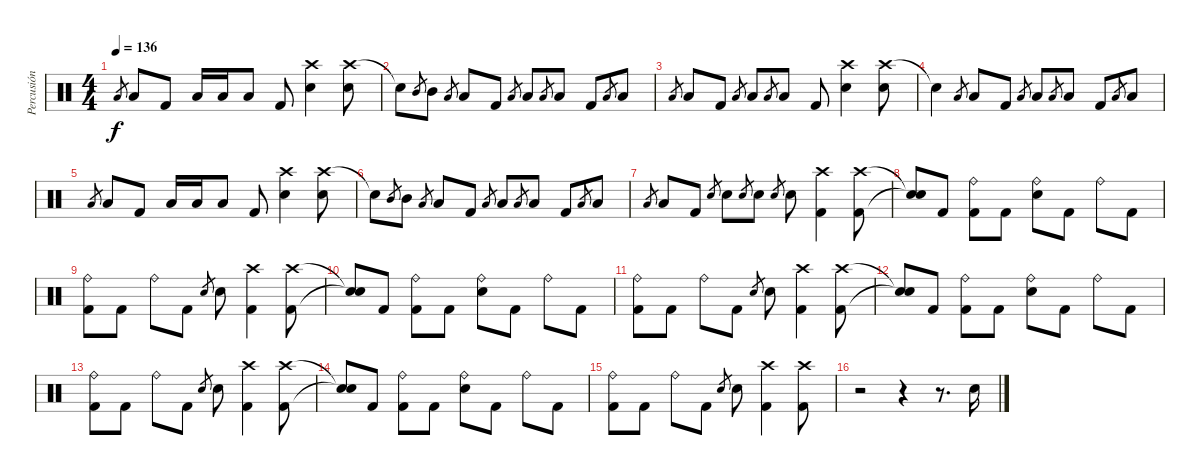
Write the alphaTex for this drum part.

\track ("Percusión" "Percusión") {instrument percussion}
\staff {score}
\articulation defaults
\ts (4 4)
\tempo 136
\clef neutral
\ks c "Low Tom (hit)".8{gr dy f} "Low Tom (hit)".8 "Kick (hit) 2".8 "Low Tom (hit)".16 "Low Tom (hit)".16 "Low Tom (hit)".8 "Kick (hit) 2".8
("Crash high (hit)" "Electric Snare (hit)").4 ("Crash high (hit)" "Electric Snare (hit)").8 |
"Snare (hit)"{t}.8 "Mid Tom (hit)".8{gr} "Mid Tom (hit)".8 "Low Tom (hit)".8{gr} "Low Tom (hit)".8 "Kick (hit) 2".8 "Low Tom (hit)".8{gr} "Low Tom (hit)".8 "Low Tom (hit)".8{gr} "Low Tom (hit)".8 "Kick (hit) 2".8 "Low Tom (hit)".8{gr} "Low Tom (hit)".8 |
"Low Tom (hit)".8{gr} "Low Tom (hit)".8 "Kick (hit) 2".8 "Low Tom (hit)".8{gr} "Low Tom (hit)".8 "Low Tom (hit)".8{gr} "Low Tom (hit)".8 "Kick (hit) 2".8 ("Crash high (hit)" "Electric Snare (hit)").4 ("Crash high (hit)" "Electric Snare (hit)").8 |
"Snare (hit)"{t}.4 "Low Tom (hit)".8{gr} "Low Tom (hit)".8 "Kick (hit) 2".8 "Low Tom (hit)".8{gr} "Low Tom (hit)".8 "Low Tom (hit)".8{gr} "Low Tom (hit)".8 "Kick (hit) 2".8 "Low Tom (hit)".8{gr} "Low Tom (hit)".8 |
"Low Tom (hit)".8{gr} "Low Tom (hit)".8 "Kick (hit) 2".8 "Low Tom (hit)".16 "Low Tom (hit)".16 "Low Tom (hit)".8 "Kick (hit) 2".8 ("Crash high (hit)" "Electric Snare (hit)").4 ("Crash high (hit)" "Electric Snare (hit)").8 |
"Snare (hit)"{t}.8 "Mid Tom (hit)".8{gr} "Mid Tom (hit)".8 "Low Tom (hit)".8{gr} "Low Tom (hit)".8 "Kick (hit) 2".8 "Low Tom (hit)".8{gr} "Low Tom (hit)".8 "Low Tom (hit)".8{gr} "Low Tom (hit)".8 "Kick (hit) 2".8 "Low Tom (hit)".8{gr} "Low Tom (hit)".8 |
"Low Tom (hit)".8{gr} "Low Tom (hit)".8 "Kick (hit) 2".8 "Electric Snare (hit)".8{gr} "Electric Snare (hit)".8 "Electric Snare (hit)".8{gr} "Electric Snare (hit)".8 "Electric Snare (hit)".8{gr} "Electric Snare (hit)".8 ("Crash high (hit)" "Kick (hit) 2").4 ("Crash high (hit)" "Kick (hit) 2").8 |
("Snare (hit)"{t} "Snare (hit)"{t}).8 "Kick (hit) 2".8 ("Ride (bell)" "Kick (hit) 2").8 "Kick (hit) 2".8 ("Ride (bell)" "Electric Snare (hit)").8 "Kick (hit) 2".8 "Ride (bell)".8 "Kick (hit) 2".8 |
("Ride (bell)" "Kick (hit) 2").8 "Kick (hit) 2".8 "Ride (bell)".8 "Kick (hit) 2".8 "Electric Snare (hit)".8{gr} "Electric Snare (hit)".8 ("Crash high (hit)" "Kick (hit) 2").4 ("Crash high (hit)" "Kick (hit) 2").8 |
("Snare (hit)"{t} "Snare (hit)"{t}).8 "Kick (hit) 2".8 ("Ride (bell)" "Kick (hit) 2").8 "Kick (hit) 2".8 ("Ride (bell)" "Electric Snare (hit)").8 "Kick (hit) 2".8 "Ride (bell)".8 "Kick (hit) 2".8 |
("Ride (bell)" "Kick (hit) 2").8 "Kick (hit) 2".8 "Ride (bell)".8 "Kick (hit) 2".8 "Electric Snare (hit)".8{gr} "Electric Snare (hit)".8 ("Crash high (hit)" "Kick (hit) 2").4 ("Crash high (hit)" "Kick (hit) 2").8 |
("Snare (hit)"{t} "Snare (hit)"{t}).8 "Kick (hit) 2".8 ("Ride (bell)" "Kick (hit) 2").8 "Kick (hit) 2".8 ("Ride (bell)" "Electric Snare (hit)").8 "Kick (hit) 2".8 "Ride (bell)".8 "Kick (hit) 2".8 |
("Ride (bell)" "Kick (hit) 2").8 "Kick (hit) 2".8 "Ride (bell)".8 "Kick (hit) 2".8 "Electric Snare (hit)".8{gr} "Electric Snare (hit)".8 ("Crash high (hit)" "Kick (hit) 2").4 ("Crash high (hit)" "Kick (hit) 2").8 |
("Snare (hit)"{t} "Snare (hit)"{t}).8 "Kick (hit) 2".8 ("Ride (bell)" "Kick (hit) 2").8 "Kick (hit) 2".8 ("Ride (bell)" "Electric Snare (hit)").8 "Kick (hit) 2".8 "Ride (bell)".8 "Kick (hit) 2".8 |
("Ride (bell)" "Kick (hit) 2").8 "Kick (hit) 2".8 "Ride (bell)".8 "Kick (hit) 2".8 "Electric Snare (hit)".8{gr} "Electric Snare (hit)".8 ("Crash high (hit)" "Kick (hit) 2").4 ("Crash high (hit)" "Kick (hit) 2").8 |
r.2 r.4 r.8{d} "Electric Snare (hit)".16
